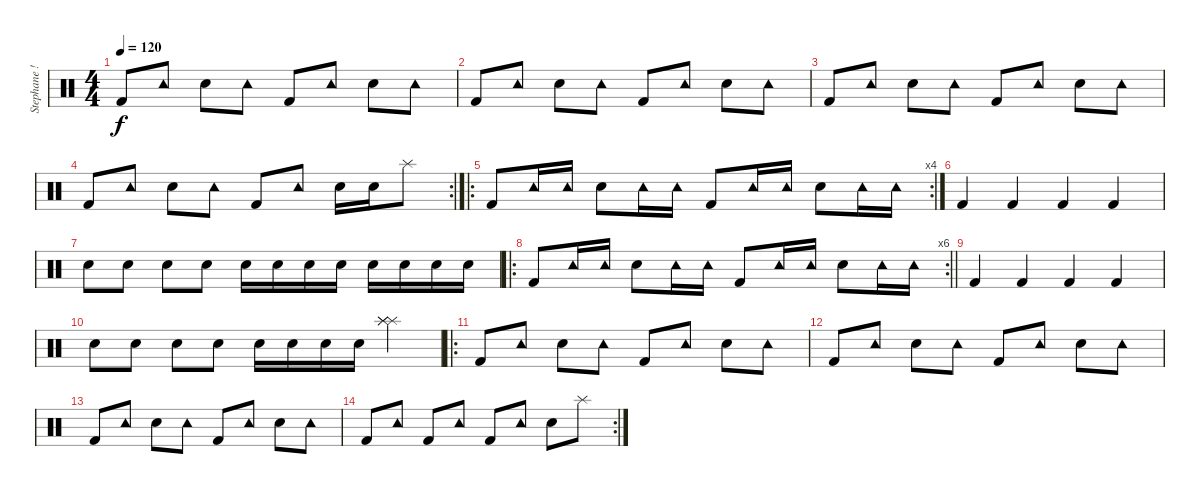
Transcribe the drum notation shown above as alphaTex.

\track ("Stephane !!!!!!!!!" "Stephane !") {instrument percussion}
\staff {score}
\articulation defaults
\ts (4 4)
\tempo 120
\clef neutral
\ks c "Kick (hit) 2".8{dy f} "Tambourine (hit)".8 "Electric Snare (hit)".8 "Tambourine (hit)".8 "Kick (hit) 2".8 "Tambourine (hit)".8 "Electric Snare (hit)".8 "Tambourine (hit)".8
|
"Kick (hit) 2".8 "Tambourine (hit)".8 "Electric Snare (hit)".8 "Tambourine (hit)".8 "Kick (hit) 2".8 "Tambourine (hit)".8 "Electric Snare (hit)".8 "Tambourine (hit)".8 |
"Kick (hit) 2".8 "Tambourine (hit)".8 "Electric Snare (hit)".8 "Tambourine (hit)".8 "Kick (hit) 2".8 "Tambourine (hit)".8 "Electric Snare (hit)".8 "Tambourine (hit)".8 |
\rc 2 "Kick (hit) 2".8 "Tambourine (hit)".8 "Electric Snare (hit)".8 "Tambourine (hit)".8 "Kick (hit) 2".8 "Tambourine (hit)".8 "Electric Snare (hit)".16 "Electric Snare (hit)".16 "Splash (hit)".8
|
\ro
\rc 4 "Kick (hit) 2".8 "Tambourine (hit)".16 "Tambourine (hit)".16 "Electric Snare (hit)".8 "Tambourine (hit)".16 "Tambourine (hit)".16 "Kick (hit) 2".8 "Tambourine (hit)".16 "Tambourine (hit)".16 "Electric Snare (hit)".8 "Tambourine (hit)".16 "Tambourine (hit)".16
|
"Kick (hit) 2".4 "Kick (hit) 2".4 "Kick (hit) 2".4 "Kick (hit) 2".4 |
"Electric Snare (hit)".8 "Electric Snare (hit)".8 "Electric Snare (hit)".8 "Electric Snare (hit)".8 "Electric Snare (hit)".16 "Electric Snare (hit)".16 "Electric Snare (hit)".16 "Electric Snare (hit)".16 "Electric Snare (hit)".16 "Electric Snare (hit)".16 "Electric Snare (hit)".16 "Electric Snare (hit)".16 |
\ro
\rc 6
\barLineRight lightlight "Kick (hit) 2".8 "Tambourine (hit)".16 "Tambourine (hit)".16 "Electric Snare (hit)".8 "Tambourine (hit)".16 "Tambourine (hit)".16 "Kick (hit) 2".8 "Tambourine (hit)".16 "Tambourine (hit)".16 "Electric Snare (hit)".8 "Tambourine (hit)".16 "Tambourine (hit)".16
|
"Kick (hit) 2".4 "Kick (hit) 2".4 "Kick (hit) 2".4 "Kick (hit) 2".4 |
"Electric Snare (hit)".8 "Electric Snare (hit)".8 "Electric Snare (hit)".8 "Electric Snare (hit)".8 "Electric Snare (hit)".16 "Electric Snare (hit)".16 "Electric Snare (hit)".16 "Electric Snare (hit)".16 ("Splash (hit)" "Splash (hit)" "Splash (hit)").4 |
\ro "Kick (hit) 2".8 "Tambourine (hit)".8 "Electric Snare (hit)".8 "Tambourine (hit)".8 "Kick (hit) 2".8 "Tambourine (hit)".8 "Electric Snare (hit)".8 "Tambourine (hit)".8
|
"Kick (hit) 2".8 "Tambourine (hit)".8 "Electric Snare (hit)".8 "Tambourine (hit)".8 "Kick (hit) 2".8 "Tambourine (hit)".8 "Electric Snare (hit)".8 "Tambourine (hit)".8 |
"Kick (hit) 2".8 "Tambourine (hit)".8 "Electric Snare (hit)".8 "Tambourine (hit)".8 "Kick (hit) 2".8 "Tambourine (hit)".8 "Electric Snare (hit)".8 "Tambourine (hit)".8 |
\rc 2 "Kick (hit) 2".8 "Tambourine (hit)".8 "Kick (hit) 2".8 "Tambourine (hit)".8 "Kick (hit) 2".8 "Tambourine (hit)".8 "Electric Snare (hit)".8 "Splash (hit)".8
